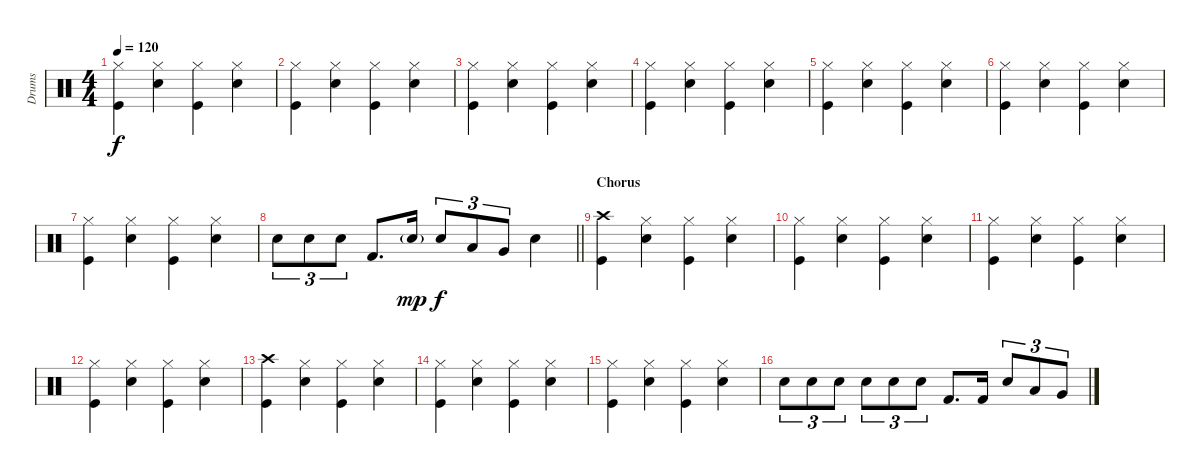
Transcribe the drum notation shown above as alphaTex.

\track ("Drums" "Drums") {instrument percussion}
\staff {score}
\articulation defaults
\ts (4 4)
\tempo 120
\clef neutral
\ks c
("Hi-Hat (closed)" "Kick (hit)").4{dy f} ("Hi-Hat (closed)" "Electric Snare (hit)").4 ("Hi-Hat (closed)" "Kick (hit)").4 ("Hi-Hat (closed)" "Electric Snare (hit)").4 |
("Hi-Hat (closed)" "Kick (hit)").4 ("Hi-Hat (closed)" "Electric Snare (hit)").4 ("Hi-Hat (closed)" "Kick (hit)").4 ("Hi-Hat (closed)" "Electric Snare (hit)").4 |
("Hi-Hat (closed)" "Kick (hit)").4 ("Hi-Hat (closed)" "Electric Snare (hit)").4 ("Hi-Hat (closed)" "Kick (hit)").4 ("Hi-Hat (closed)" "Electric Snare (hit)").4 |
("Hi-Hat (closed)" "Kick (hit)").4 ("Hi-Hat (closed)" "Electric Snare (hit)").4 ("Hi-Hat (closed)" "Kick (hit)").4 ("Hi-Hat (closed)" "Electric Snare (hit)").4 |
("Hi-Hat (closed)" "Kick (hit)").4 ("Hi-Hat (closed)" "Electric Snare (hit)").4 ("Hi-Hat (closed)" "Kick (hit)").4 ("Hi-Hat (closed)" "Electric Snare (hit)").4 |
("Hi-Hat (closed)" "Kick (hit)").4 ("Hi-Hat (closed)" "Electric Snare (hit)").4 ("Hi-Hat (closed)" "Kick (hit)").4 ("Hi-Hat (closed)" "Electric Snare (hit)").4 |
("Hi-Hat (closed)" "Kick (hit)").4 ("Hi-Hat (closed)" "Electric Snare (hit)").4 ("Hi-Hat (closed)" "Kick (hit)").4 ("Hi-Hat (closed)" "Electric Snare (hit)").4 |
\barLineRight lightlight "Electric Snare (hit)".8{tu (3 2)} "Electric Snare (hit)".8{tu (3 2)} "Electric Snare (hit)".8{tu (3 2)} "Kick (hit) 2".8{d} "Electric Snare (hit)"{g}.16{dy mp} "Electric Snare (hit)".8{tu (3 2) dy f} "Low Tom (hit)".8{tu (3 2)} "Very Low Tom (hit)".8{tu (3 2)} "Electric Snare (hit)".4
|
\section ("" "Chorus")
("Crash high (hit)" "Kick (hit)").4 ("Hi-Hat (closed)" "Electric Snare (hit)").4 ("Hi-Hat (closed)" "Kick (hit)").4 ("Hi-Hat (closed)" "Electric Snare (hit)").4 |
("Hi-Hat (closed)" "Kick (hit)").4 ("Hi-Hat (closed)" "Electric Snare (hit)").4 ("Hi-Hat (closed)" "Kick (hit)").4 ("Hi-Hat (closed)" "Electric Snare (hit)").4 |
("Hi-Hat (closed)" "Kick (hit)").4 ("Hi-Hat (closed)" "Electric Snare (hit)").4 ("Hi-Hat (closed)" "Kick (hit)").4 ("Hi-Hat (closed)" "Electric Snare (hit)").4 |
("Hi-Hat (closed)" "Kick (hit)").4 ("Hi-Hat (closed)" "Electric Snare (hit)").4 ("Hi-Hat (closed)" "Kick (hit)").4 ("Hi-Hat (closed)" "Electric Snare (hit)").4 |
("Crash high (hit)" "Kick (hit)").4 ("Hi-Hat (closed)" "Electric Snare (hit)").4 ("Hi-Hat (closed)" "Kick (hit)").4 ("Hi-Hat (closed)" "Electric Snare (hit)").4 |
("Hi-Hat (closed)" "Kick (hit)").4 ("Hi-Hat (closed)" "Electric Snare (hit)").4 ("Hi-Hat (closed)" "Kick (hit)").4 ("Hi-Hat (closed)" "Electric Snare (hit)").4 |
("Hi-Hat (closed)" "Kick (hit)").4 ("Hi-Hat (closed)" "Electric Snare (hit)").4 ("Hi-Hat (closed)" "Kick (hit)").4 ("Hi-Hat (closed)" "Electric Snare (hit)").4 |
"Electric Snare (hit)".8{tu (3 2)} "Electric Snare (hit)".8{tu (3 2)} "Electric Snare (hit)".8{tu (3 2)} "Electric Snare (hit)".8{tu (3 2)} "Electric Snare (hit)".8{tu (3 2)} "Electric Snare (hit)".8{tu (3 2)} "Kick (hit) 2".8{d} "Kick (hit) 2".16 "Electric Snare (hit)".8{tu (3 2)} "Low Tom (hit)".8{tu (3 2)} "Very Low Tom (hit)".8{tu (3 2)}
